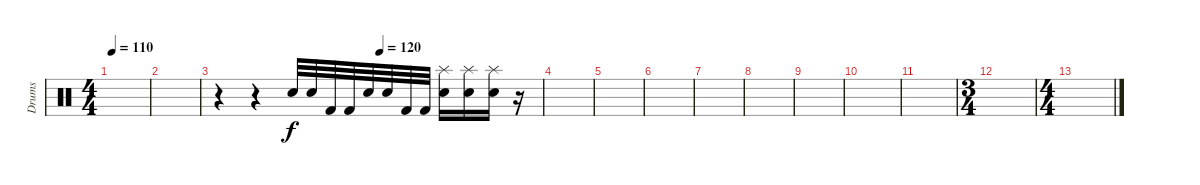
\track ("Drums" "Drums") {instrument percussion}
\staff {score}
\articulation defaults
\ts (4 4)
\tempo 110
\clef neutral
\ks c
|
|
\tempo (120 0.5)
r.4 r.4 "Electric Snare (hit)".32 "Electric Snare (hit)".32 "Kick (hit) 2".32 "Kick (hit) 2".32 "Electric Snare (hit)".32 "Electric Snare (hit)".32 "Kick (hit) 2".32 "Kick (hit) 2".32 ("Splash (hit)" "Electric Snare (hit)").16 ("Splash (hit)" "Electric Snare (hit)").16 ("Splash (hit)" "Electric Snare (hit)").16 r.16 |
|
|
|
|
|
|
|
|
\ts (3 4)
|
\ts (4 4)
